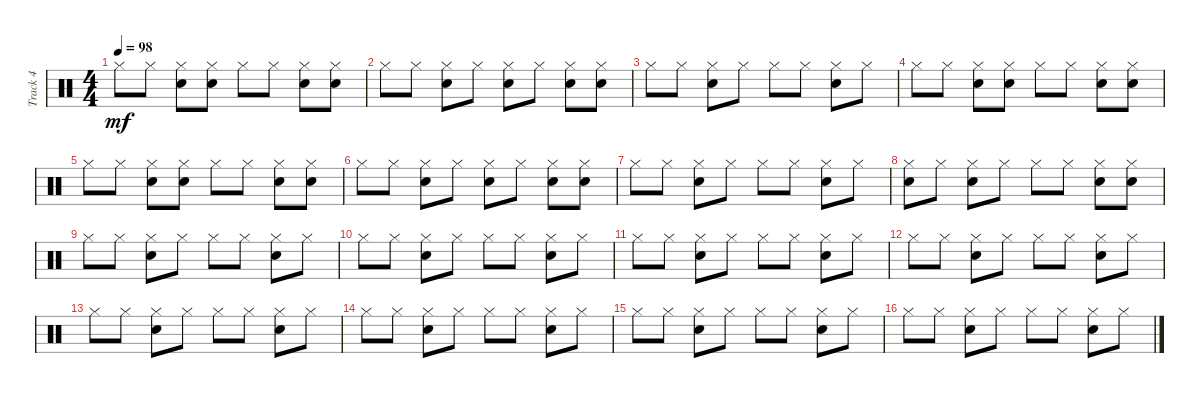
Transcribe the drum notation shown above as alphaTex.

\track ("Track 4" "Track 4") {instrument percussion}
\staff {score}
\articulation defaults
\ts (4 4)
\tempo 98
\clef neutral
\ks c "Hi-Hat (closed)".8{dy mf} "Hi-Hat (closed)".8
("Hi-Hat (closed)" "Snare (hit) 2").8 ("Hi-Hat (closed)" "Snare (hit) 2").8 "Hi-Hat (closed)".8 "Hi-Hat (closed)".8 ("Hi-Hat (closed)" "Snare (hit) 2").8 ("Hi-Hat (closed)" "Snare (hit) 2").8 |
"Hi-Hat (closed)".8 "Hi-Hat (closed)".8 ("Hi-Hat (closed)" "Snare (hit) 2").8 "Hi-Hat (closed)".8 ("Hi-Hat (closed)" "Snare (hit) 2").8 "Hi-Hat (closed)".8 ("Hi-Hat (closed)" "Snare (hit) 2").8 ("Hi-Hat (closed)" "Snare (hit) 2").8 |
"Hi-Hat (closed)".8 "Hi-Hat (closed)".8 ("Hi-Hat (closed)" "Snare (hit) 2").8 "Hi-Hat (closed)".8 "Hi-Hat (closed)".8 "Hi-Hat (closed)".8 ("Hi-Hat (closed)" "Snare (hit) 2").8 "Hi-Hat (closed)".8 |
"Hi-Hat (closed)".8 "Hi-Hat (closed)".8 ("Hi-Hat (closed)" "Snare (hit) 2").8 ("Hi-Hat (closed)" "Snare (hit) 2").8 "Hi-Hat (closed)".8 "Hi-Hat (closed)".8 ("Hi-Hat (closed)" "Snare (hit) 2").8 ("Hi-Hat (closed)" "Snare (hit) 2").8 |
"Hi-Hat (closed)".8 "Hi-Hat (closed)".8 ("Hi-Hat (closed)" "Snare (hit) 2").8 ("Hi-Hat (closed)" "Snare (hit) 2").8 "Hi-Hat (closed)".8 "Hi-Hat (closed)".8 ("Hi-Hat (closed)" "Snare (hit) 2").8 ("Hi-Hat (closed)" "Snare (hit) 2").8 |
"Hi-Hat (closed)".8 "Hi-Hat (closed)".8 ("Hi-Hat (closed)" "Snare (hit) 2").8 "Hi-Hat (closed)".8 ("Hi-Hat (closed)" "Snare (hit) 2").8 "Hi-Hat (closed)".8 ("Hi-Hat (closed)" "Snare (hit) 2").8 ("Hi-Hat (closed)" "Snare (hit) 2").8 |
"Hi-Hat (closed)".8 "Hi-Hat (closed)".8 ("Hi-Hat (closed)" "Snare (hit) 2").8 "Hi-Hat (closed)".8 "Hi-Hat (closed)".8 "Hi-Hat (closed)".8 ("Hi-Hat (closed)" "Snare (hit) 2").8 "Hi-Hat (closed)".8 |
("Hi-Hat (closed)" "Snare (hit) 2").8 "Hi-Hat (closed)".8 ("Snare (hit) 2" "Hi-Hat (closed)").8 "Hi-Hat (closed)".8 "Hi-Hat (closed)".8 "Hi-Hat (closed)".8 ("Snare (hit) 2" "Hi-Hat (closed)").8 ("Hi-Hat (closed)" "Snare (hit) 2").8 |
"Hi-Hat (closed)".8 "Hi-Hat (closed)".8 ("Hi-Hat (closed)" "Snare (hit) 2").8 "Hi-Hat (closed)".8 "Hi-Hat (closed)".8 "Hi-Hat (closed)".8 ("Hi-Hat (closed)" "Snare (hit) 2").8 "Hi-Hat (closed)".8 |
"Hi-Hat (closed)".8 "Hi-Hat (closed)".8 ("Hi-Hat (closed)" "Snare (hit) 2").8 "Hi-Hat (closed)".8 "Hi-Hat (closed)".8 "Hi-Hat (closed)".8 ("Hi-Hat (closed)" "Snare (hit) 2").8 "Hi-Hat (closed)".8 |
"Hi-Hat (closed)".8 "Hi-Hat (closed)".8 ("Hi-Hat (closed)" "Snare (hit) 2").8 "Hi-Hat (closed)".8 "Hi-Hat (closed)".8 "Hi-Hat (closed)".8 ("Hi-Hat (closed)" "Snare (hit) 2").8 "Hi-Hat (closed)".8 |
"Hi-Hat (closed)".8 "Hi-Hat (closed)".8 ("Hi-Hat (closed)" "Snare (hit) 2").8 "Hi-Hat (closed)".8 "Hi-Hat (closed)".8 "Hi-Hat (closed)".8 ("Hi-Hat (closed)" "Snare (hit) 2").8 "Hi-Hat (closed)".8 |
"Hi-Hat (closed)".8 "Hi-Hat (closed)".8 ("Hi-Hat (closed)" "Snare (hit) 2").8 "Hi-Hat (closed)".8 "Hi-Hat (closed)".8 "Hi-Hat (closed)".8 ("Hi-Hat (closed)" "Snare (hit) 2").8 "Hi-Hat (closed)".8 |
"Hi-Hat (closed)".8 "Hi-Hat (closed)".8 ("Hi-Hat (closed)" "Snare (hit) 2").8 "Hi-Hat (closed)".8 "Hi-Hat (closed)".8 "Hi-Hat (closed)".8 ("Hi-Hat (closed)" "Snare (hit) 2").8 "Hi-Hat (closed)".8 |
"Hi-Hat (closed)".8 "Hi-Hat (closed)".8 ("Hi-Hat (closed)" "Snare (hit) 2").8 "Hi-Hat (closed)".8 "Hi-Hat (closed)".8 "Hi-Hat (closed)".8 ("Hi-Hat (closed)" "Snare (hit) 2").8 "Hi-Hat (closed)".8 |
"Hi-Hat (closed)".8 "Hi-Hat (closed)".8 ("Hi-Hat (closed)" "Snare (hit) 2").8 "Hi-Hat (closed)".8 "Hi-Hat (closed)".8 "Hi-Hat (closed)".8 ("Hi-Hat (closed)" "Snare (hit) 2").8 "Hi-Hat (closed)".8
